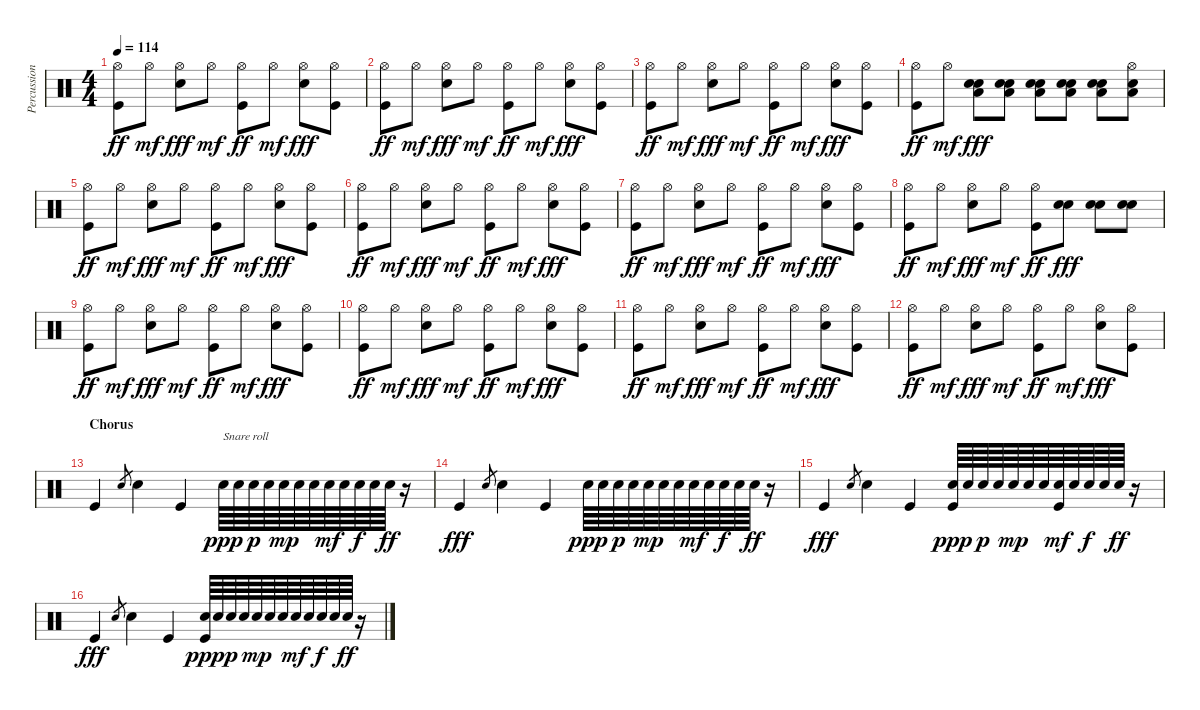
\track ("Percussion" "Percussion") {instrument percussion}
\staff {score}
\articulation defaults
\ts (4 4)
\tempo 114
\clef neutral
\ks c
("Hi-Hat (open)" "Kick (hit)").8{dy ff} "Hi-Hat (open)".8{dy mf} ("Hi-Hat (open)" "Snare (hit) 2").8{dy fff} "Hi-Hat (open)".8{dy mf} ("Hi-Hat (open)" "Kick (hit)").8{dy ff} "Hi-Hat (open)".8{dy mf} ("Hi-Hat (open)" "Snare (hit) 2").8{dy fff} ("Hi-Hat (open)" "Kick (hit)").8 |
("Hi-Hat (open)" "Kick (hit)").8{dy ff} "Hi-Hat (open)".8{dy mf} ("Hi-Hat (open)" "Snare (hit) 2").8{dy fff} "Hi-Hat (open)".8{dy mf} ("Hi-Hat (open)" "Kick (hit)").8{dy ff} "Hi-Hat (open)".8{dy mf} ("Hi-Hat (open)" "Snare (hit) 2").8{dy fff} ("Hi-Hat (open)" "Kick (hit)").8 |
("Hi-Hat (open)" "Kick (hit)").8{dy ff} "Hi-Hat (open)".8{dy mf} ("Hi-Hat (open)" "Snare (hit) 2").8{dy fff} "Hi-Hat (open)".8{dy mf} ("Hi-Hat (open)" "Kick (hit)").8{dy ff} "Hi-Hat (open)".8{dy mf} ("Hi-Hat (open)" "Snare (hit) 2").8{dy fff} ("Hi-Hat (open)" "Kick (hit)").8 |
("Hi-Hat (open)" "Kick (hit)").8{dy ff} "Hi-Hat (open)".8{dy mf} ("Snare (hit) 2" "Electric Snare (hit)" "Low Floor Tom (hit)").8{dy fff} ("Snare (hit) 2" "Electric Snare (hit)" "Low Floor Tom (hit)").8 ("Snare (hit) 2" "Electric Snare (hit)" "Low Floor Tom (hit)").8 ("Snare (hit) 2" "Electric Snare (hit)" "Low Floor Tom (hit)").8 ("Snare (hit) 2" "Electric Snare (hit)" "Low Floor Tom (hit)").8 ("Hi-Hat (open)" "Electric Snare (hit)" "Low Floor Tom (hit)").8 |
("Hi-Hat (open)" "Kick (hit)").8{dy ff} "Hi-Hat (open)".8{dy mf} ("Hi-Hat (open)" "Snare (hit) 2").8{dy fff} "Hi-Hat (open)".8{dy mf} ("Hi-Hat (open)" "Kick (hit)").8{dy ff} "Hi-Hat (open)".8{dy mf} ("Hi-Hat (open)" "Snare (hit) 2").8{dy fff} ("Hi-Hat (open)" "Kick (hit)").8 |
("Hi-Hat (open)" "Kick (hit)").8{dy ff} "Hi-Hat (open)".8{dy mf} ("Hi-Hat (open)" "Snare (hit) 2").8{dy fff} "Hi-Hat (open)".8{dy mf} ("Hi-Hat (open)" "Kick (hit)").8{dy ff} "Hi-Hat (open)".8{dy mf} ("Hi-Hat (open)" "Snare (hit) 2").8{dy fff} ("Hi-Hat (open)" "Kick (hit)").8 |
("Hi-Hat (open)" "Kick (hit)").8{dy ff} "Hi-Hat (open)".8{dy mf} ("Hi-Hat (open)" "Snare (hit) 2").8{dy fff} "Hi-Hat (open)".8{dy mf} ("Hi-Hat (open)" "Kick (hit)").8{dy ff} "Hi-Hat (open)".8{dy mf} ("Hi-Hat (open)" "Snare (hit) 2").8{dy fff} ("Hi-Hat (open)" "Kick (hit)").8 |
("Hi-Hat (open)" "Kick (hit)").8{dy ff} "Hi-Hat (open)".8{dy mf} ("Hi-Hat (open)" "Snare (hit) 2").8{dy fff} "Hi-Hat (open)".8{dy mf} ("Hi-Hat (open)" "Kick (hit)").8{dy ff} ("Electric Snare (hit)" "Snare (hit) 2").8{dy fff} ("Electric Snare (hit)" "Snare (hit) 2").8 ("Electric Snare (hit)" "Snare (hit) 2").8 |
("Hi-Hat (open)" "Kick (hit)").8{dy ff} "Hi-Hat (open)".8{dy mf} ("Hi-Hat (open)" "Snare (hit) 2").8{dy fff} "Hi-Hat (open)".8{dy mf} ("Hi-Hat (open)" "Kick (hit)").8{dy ff} "Hi-Hat (open)".8{dy mf} ("Hi-Hat (open)" "Snare (hit) 2").8{dy fff} ("Hi-Hat (open)" "Kick (hit)").8 |
("Hi-Hat (open)" "Kick (hit)").8{dy ff} "Hi-Hat (open)".8{dy mf} ("Hi-Hat (open)" "Snare (hit) 2").8{dy fff} "Hi-Hat (open)".8{dy mf} ("Hi-Hat (open)" "Kick (hit)").8{dy ff} "Hi-Hat (open)".8{dy mf} ("Hi-Hat (open)" "Snare (hit) 2").8{dy fff} ("Hi-Hat (open)" "Kick (hit)").8 |
("Hi-Hat (open)" "Kick (hit)").8{dy ff} "Hi-Hat (open)".8{dy mf} ("Hi-Hat (open)" "Snare (hit) 2").8{dy fff} "Hi-Hat (open)".8{dy mf} ("Hi-Hat (open)" "Kick (hit)").8{dy ff} "Hi-Hat (open)".8{dy mf} ("Hi-Hat (open)" "Snare (hit) 2").8{dy fff} ("Hi-Hat (open)" "Kick (hit)").8 |
("Hi-Hat (open)" "Kick (hit)").8{dy ff} "Hi-Hat (open)".8{dy mf} ("Hi-Hat (open)" "Snare (hit) 2").8{dy fff} "Hi-Hat (open)".8{dy mf} ("Hi-Hat (open)" "Kick (hit)").8{dy ff} "Hi-Hat (open)".8{dy mf} ("Hi-Hat (open)" "Snare (hit) 2").8{dy fff} ("Hi-Hat (open)" "Kick (hit)").8 |
\section ("" "Chorus")
"Kick (hit)".4 "Snare (hit) 2".8{gr} "Snare (hit) 2".4 "Kick (hit)".4 "Snare (hit) 2".64{txt "Snare roll" dy ppp} "Snare (hit) 2".64 "Snare (hit) 2".64{dy p} "Snare (hit) 2".64 "Snare (hit) 2".64{dy mp} "Snare (hit) 2".64 "Snare (hit) 2".64 "Snare (hit) 2".64{dy mf} "Snare (hit) 2".64 "Snare (hit) 2".64{dy f} "Snare (hit) 2".64 "Snare (hit) 2".64{dy ff} r.16 |
"Kick (hit)".4{dy fff} "Snare (hit) 2".8{gr} "Snare (hit) 2".4 "Kick (hit)".4 "Snare (hit) 2".64{dy ppp} "Snare (hit) 2".64 "Snare (hit) 2".64{dy p} "Snare (hit) 2".64 "Snare (hit) 2".64{dy mp} "Snare (hit) 2".64 "Snare (hit) 2".64 "Snare (hit) 2".64{dy mf} "Snare (hit) 2".64 "Snare (hit) 2".64{dy f} "Snare (hit) 2".64 "Snare (hit) 2".64{dy ff} r.16 |
"Kick (hit)".4{dy fff} "Snare (hit) 2".8{gr} "Snare (hit) 2".4 "Kick (hit)".4 ("Snare (hit) 2" "Kick (hit)").64{dy ppp} "Snare (hit) 2".64 "Snare (hit) 2".64{dy p} "Snare (hit) 2".64 "Snare (hit) 2".64{dy mp} "Snare (hit) 2".64 "Snare (hit) 2".64 ("Snare (hit) 2" "Kick (hit)").64{dy mf} "Snare (hit) 2".64 "Snare (hit) 2".64{dy f} "Snare (hit) 2".64 "Snare (hit) 2".64{dy ff} r.16 |
"Kick (hit)".4{dy fff} "Snare (hit) 2".8{gr} "Snare (hit) 2".4 "Kick (hit)".4 ("Snare (hit) 2" "Kick (hit)").64{dy ppp} "Snare (hit) 2".64 "Snare (hit) 2".64{dy p} "Snare (hit) 2".64 "Snare (hit) 2".64{dy mp} "Snare (hit) 2".64 "Snare (hit) 2".64 "Snare (hit) 2".64{dy mf} "Snare (hit) 2".64 "Snare (hit) 2".64{dy f} "Snare (hit) 2".64 "Snare (hit) 2".64{dy ff} r.16
